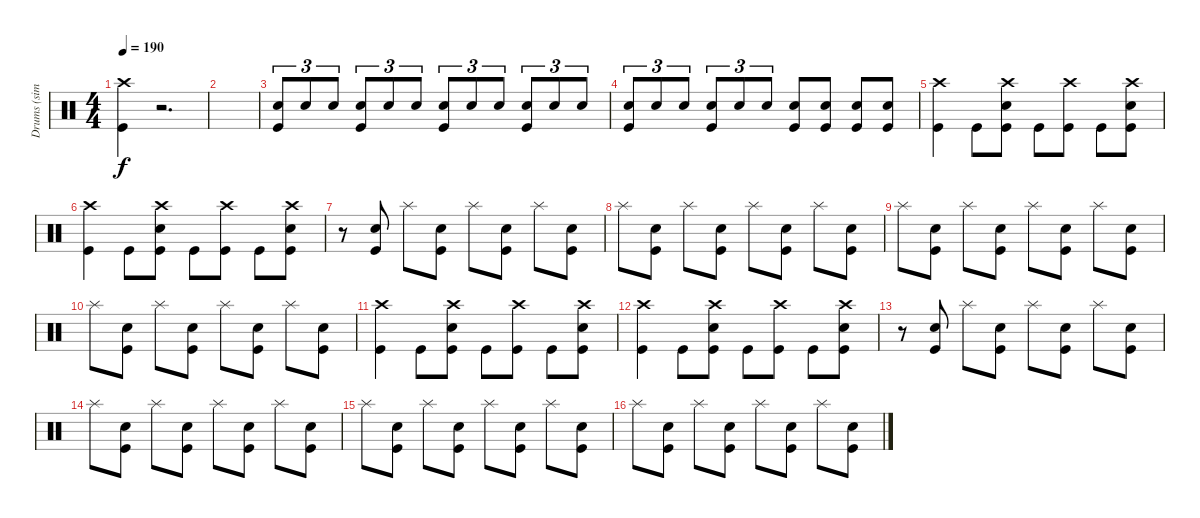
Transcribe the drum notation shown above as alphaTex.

\track ("Drums (simple)" "Drums (sim") {instrument percussion}
\staff {score}
\articulation defaults
\ts (4 4)
\tempo 185
\tempo 190
\clef neutral
\ks c
("Crash high (hit)" "Kick (hit)").4{dy f} r.2{d} |
|
("Snare (hit) 2" "Kick (hit)").8{tu (3 2) volume 7} "Snare (hit) 2".8{tu (3 2)} "Snare (hit) 2".8{tu (3 2)} ("Snare (hit) 2" "Kick (hit)").8{tu (3 2)} "Snare (hit) 2".8{tu (3 2)} "Snare (hit) 2".8{tu (3 2)} ("Snare (hit) 2" "Kick (hit)").8{tu (3 2)} "Snare (hit) 2".8{tu (3 2)} "Snare (hit) 2".8{tu (3 2)} ("Snare (hit) 2" "Kick (hit)").8{tu (3 2)} "Snare (hit) 2".8{tu (3 2)} "Snare (hit) 2".8{tu (3 2)} |
("Snare (hit) 2" "Kick (hit)").8{tu (3 2)} "Snare (hit) 2".8{tu (3 2)} "Snare (hit) 2".8{tu (3 2)} ("Snare (hit) 2" "Kick (hit)").8{tu (3 2)} "Snare (hit) 2".8{tu (3 2)} "Snare (hit) 2".8{tu (3 2)} ("Snare (hit) 2" "Kick (hit)").8 ("Snare (hit) 2" "Kick (hit)").8 ("Snare (hit) 2" "Kick (hit)").8 ("Snare (hit) 2" "Kick (hit)").8 |
("Crash high (hit)" "Kick (hit)").4{volume 10} "Kick (hit)".8 ("Crash high (hit)" "Snare (hit) 2" "Kick (hit)").8 "Kick (hit)".8 ("Crash high (hit)" "Kick (hit)").8 "Kick (hit)".8 ("Crash high (hit)" "Snare (hit) 2" "Kick (hit)").8 |
("Crash high (hit)" "Kick (hit)").4 "Kick (hit)".8 ("Crash high (hit)" "Snare (hit) 2" "Kick (hit)").8 "Kick (hit)".8 ("Crash high (hit)" "Kick (hit)").8 "Kick (hit)".8 ("Crash high (hit)" "Snare (hit) 2" "Kick (hit)").8 |
r.8 ("Snare (hit) 2" "Kick (hit)").8 "Splash (hit)".8 ("Snare (hit) 2" "Kick (hit)").8 "Splash (hit)".8 ("Snare (hit) 2" "Kick (hit)").8 "Splash (hit)".8 ("Snare (hit) 2" "Kick (hit)").8 |
"Splash (hit)".8 ("Snare (hit) 2" "Kick (hit)").8 "Splash (hit)".8 ("Snare (hit) 2" "Kick (hit)").8 "Splash (hit)".8 ("Snare (hit) 2" "Kick (hit)").8 "Splash (hit)".8 ("Snare (hit) 2" "Kick (hit)").8 |
"Splash (hit)".8 ("Snare (hit) 2" "Kick (hit)").8 "Splash (hit)".8 ("Snare (hit) 2" "Kick (hit)").8 "Splash (hit)".8 ("Snare (hit) 2" "Kick (hit)").8 "Splash (hit)".8 ("Snare (hit) 2" "Kick (hit)").8 |
"Splash (hit)".8 ("Snare (hit) 2" "Kick (hit)").8 "Splash (hit)".8 ("Snare (hit) 2" "Kick (hit)").8 "Splash (hit)".8 ("Snare (hit) 2" "Kick (hit)").8 "Splash (hit)".8 ("Snare (hit) 2" "Kick (hit)").8 |
("Crash high (hit)" "Kick (hit)").4 "Kick (hit)".8 ("Crash high (hit)" "Snare (hit) 2" "Kick (hit)").8 "Kick (hit)".8 ("Crash high (hit)" "Kick (hit)").8 "Kick (hit)".8 ("Crash high (hit)" "Snare (hit) 2" "Kick (hit)").8 |
("Crash high (hit)" "Kick (hit)").4 "Kick (hit)".8 ("Crash high (hit)" "Snare (hit) 2" "Kick (hit)").8 "Kick (hit)".8 ("Crash high (hit)" "Kick (hit)").8 "Kick (hit)".8 ("Crash high (hit)" "Snare (hit) 2" "Kick (hit)").8 |
r.8 ("Snare (hit) 2" "Kick (hit)").8 "Splash (hit)".8 ("Snare (hit) 2" "Kick (hit)").8 "Splash (hit)".8 ("Snare (hit) 2" "Kick (hit)").8 "Splash (hit)".8 ("Snare (hit) 2" "Kick (hit)").8 |
"Splash (hit)".8 ("Snare (hit) 2" "Kick (hit)").8 "Splash (hit)".8 ("Snare (hit) 2" "Kick (hit)").8 "Splash (hit)".8 ("Snare (hit) 2" "Kick (hit)").8 "Splash (hit)".8 ("Snare (hit) 2" "Kick (hit)").8 |
"Splash (hit)".8 ("Snare (hit) 2" "Kick (hit)").8 "Splash (hit)".8 ("Snare (hit) 2" "Kick (hit)").8 "Splash (hit)".8 ("Snare (hit) 2" "Kick (hit)").8 "Splash (hit)".8 ("Snare (hit) 2" "Kick (hit)").8 |
"Splash (hit)".8 ("Snare (hit) 2" "Kick (hit)").8 "Splash (hit)".8 ("Snare (hit) 2" "Kick (hit)").8 "Splash (hit)".8 ("Snare (hit) 2" "Kick (hit)").8 "Splash (hit)".8 ("Snare (hit) 2" "Kick (hit)").8
